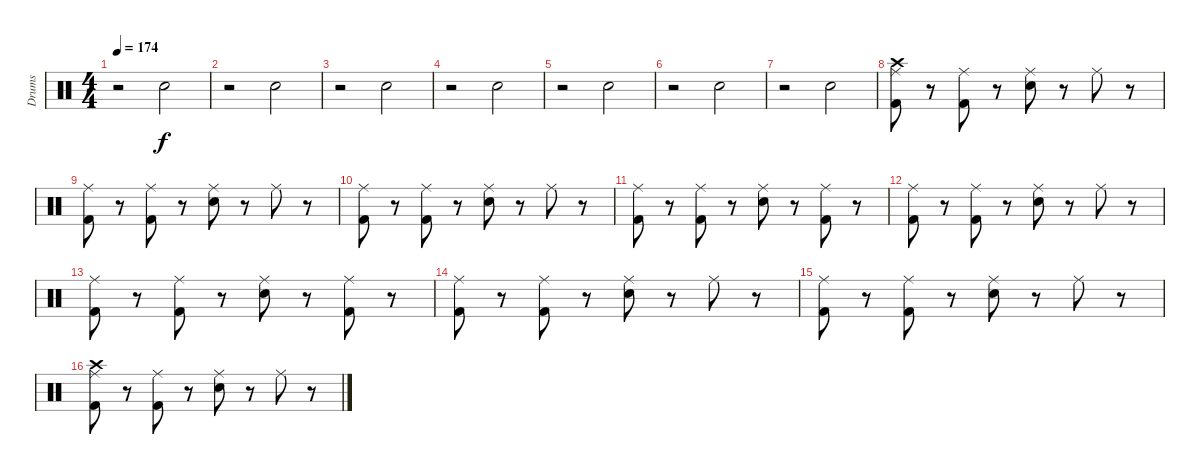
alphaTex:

\track ("Drums" "Drums") {instrument percussion}
\staff {score}
\articulation defaults
\ts (4 4)
\tempo 174
\clef neutral
\ks c
r.2{dy f} "Snare (hit) 2".2 |
r.2 "Snare (hit) 2".2 |
r.2 "Snare (hit) 2".2 |
r.2 "Snare (hit) 2".2 |
r.2 "Snare (hit) 2".2 |
r.2 "Snare (hit) 2".2 |
r.2 "Snare (hit) 2".2 |
("Ride (middle)" "Crash high (hit)" "Kick (hit) 2").8{volume 16} r.8 ("Ride (middle)" "Kick (hit) 2").8 r.8 ("Ride (middle)" "Snare (hit) 2").8 r.8 "Ride (middle)".8 r.8 |
("Ride (middle)" "Kick (hit) 2").8 r.8 ("Ride (middle)" "Kick (hit) 2").8 r.8 ("Ride (middle)" "Snare (hit) 2").8 r.8 "Ride (middle)".8 r.8 |
("Ride (middle)" "Kick (hit) 2").8 r.8 ("Ride (middle)" "Kick (hit) 2").8 r.8 ("Ride (middle)" "Snare (hit) 2").8 r.8 "Ride (middle)".8 r.8 |
("Ride (middle)" "Kick (hit) 2").8 r.8 ("Ride (middle)" "Kick (hit) 2").8 r.8 ("Ride (middle)" "Snare (hit) 2").8 r.8 ("Ride (middle)" "Kick (hit) 2").8 r.8 |
("Ride (middle)" "Kick (hit) 2").8 r.8 ("Ride (middle)" "Kick (hit) 2").8 r.8 ("Ride (middle)" "Snare (hit) 2").8 r.8 "Ride (middle)".8 r.8 |
("Ride (middle)" "Kick (hit) 2").8 r.8 ("Ride (middle)" "Kick (hit) 2").8 r.8 ("Ride (middle)" "Snare (hit) 2").8 r.8 ("Ride (middle)" "Kick (hit) 2").8 r.8 |
("Ride (middle)" "Kick (hit) 2").8 r.8 ("Ride (middle)" "Kick (hit) 2").8 r.8 ("Ride (middle)" "Snare (hit) 2").8 r.8 "Ride (middle)".8 r.8 |
("Ride (middle)" "Kick (hit) 2").8 r.8 ("Ride (middle)" "Kick (hit) 2").8 r.8 ("Ride (middle)" "Snare (hit) 2").8 r.8 "Ride (middle)".8 r.8 |
("Ride (middle)" "Crash high (hit)" "Kick (hit) 2").8{volume 16} r.8 ("Ride (middle)" "Kick (hit) 2").8 r.8 ("Ride (middle)" "Snare (hit) 2").8 r.8 "Ride (middle)".8 r.8
